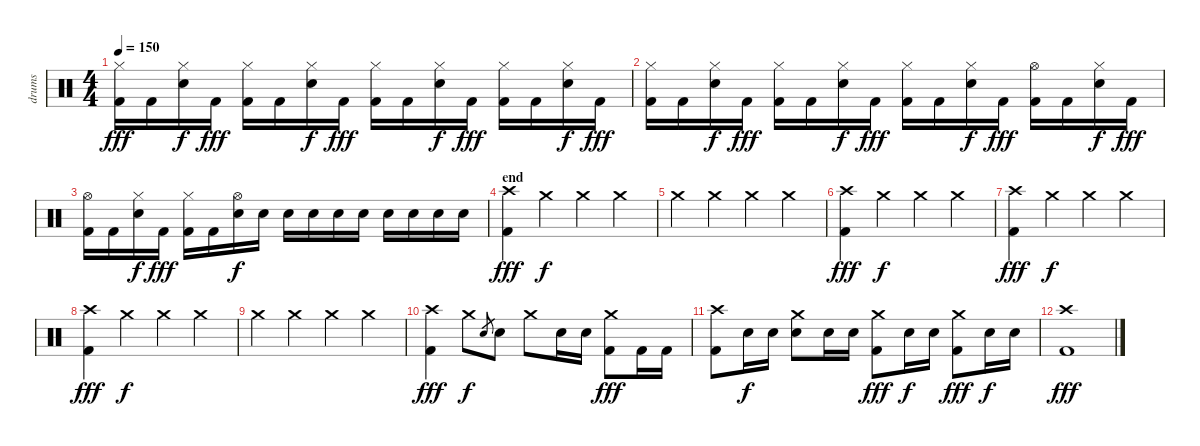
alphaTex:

\track ("drums" "drums") {instrument percussion}
\staff {score}
\articulation defaults
\ts (4 4)
\tempo 150
\clef neutral
\ks c
("Hi-Hat (closed)" "Kick (hit) 2").16{dy fff} "Kick (hit) 2".16 ("Hi-Hat (closed)" "Snare (hit) 2").16{dy f} "Kick (hit) 2".16{dy fff} ("Hi-Hat (closed)" "Kick (hit) 2").16 "Kick (hit) 2".16 ("Hi-Hat (closed)" "Snare (hit) 2").16{dy f} "Kick (hit) 2".16{dy fff} ("Hi-Hat (closed)" "Kick (hit) 2").16 "Kick (hit) 2".16 ("Hi-Hat (closed)" "Snare (hit) 2").16{dy f} "Kick (hit) 2".16{dy fff} ("Hi-Hat (closed)" "Kick (hit) 2").16 "Kick (hit) 2".16 ("Hi-Hat (closed)" "Snare (hit) 2").16{dy f} "Kick (hit) 2".16{dy fff} |
("Hi-Hat (closed)" "Kick (hit) 2").16 "Kick (hit) 2".16 ("Hi-Hat (closed)" "Snare (hit) 2").16{dy f} "Kick (hit) 2".16{dy fff} ("Hi-Hat (closed)" "Kick (hit) 2").16 "Kick (hit) 2".16 ("Hi-Hat (closed)" "Snare (hit) 2").16{dy f} "Kick (hit) 2".16{dy fff} ("Hi-Hat (closed)" "Kick (hit) 2").16 "Kick (hit) 2".16 ("Hi-Hat (closed)" "Snare (hit) 2").16{dy f} "Kick (hit) 2".16{dy fff} ("Hi-Hat (open)" "Kick (hit) 2").16 "Kick (hit) 2".16 ("Hi-Hat (closed)" "Snare (hit) 2").16{dy f} "Kick (hit) 2".16{dy fff} |
("Hi-Hat (open)" "Kick (hit) 2").16 "Kick (hit) 2".16 ("Hi-Hat (closed)" "Snare (hit) 2").16{dy f} "Kick (hit) 2".16{dy fff} ("Hi-Hat (closed)" "Kick (hit) 2").16 "Kick (hit) 2".16 ("Hi-Hat (open)" "Snare (hit) 2").16{dy f} "Snare (hit) 2".16 "Snare (hit) 2".16 "Snare (hit) 2".16 "Snare (hit) 2".16 "Snare (hit) 2".16 "Snare (hit) 2".16 "Snare (hit) 2".16 "Snare (hit) 2".16 "Snare (hit) 2".16 |
\section ("" "end")
("Crash high (hit)" "Kick (hit) 2").4{dy fff} "Crash medium (hit)".4{dy f} "Crash medium (hit)".4 "Crash medium (hit)".4 |
"Crash medium (hit)".4 "Crash medium (hit)".4 "Crash medium (hit)".4 "Crash medium (hit)".4 |
("Crash high (hit)" "Kick (hit) 2").4{dy fff} "Crash medium (hit)".4{dy f} "Crash medium (hit)".4 "Crash medium (hit)".4 |
("Crash high (hit)" "Kick (hit) 2").4{dy fff} "Crash medium (hit)".4{dy f} "Crash medium (hit)".4 "Crash medium (hit)".4 |
("Crash high (hit)" "Kick (hit) 2").4{dy fff} "Crash medium (hit)".4{dy f} "Crash medium (hit)".4 "Crash medium (hit)".4 |
"Crash medium (hit)".4 "Crash medium (hit)".4 "Crash medium (hit)".4 "Crash medium (hit)".4 |
("Crash high (hit)" "Kick (hit) 2").4{dy fff} "Crash medium (hit)".8{dy f} "Snare (hit) 2".8{gr} "Snare (hit) 2".8 "Crash medium (hit)".8 "Snare (hit) 2".16 "Snare (hit) 2".16 ("Crash medium (hit)" "Kick (hit) 2").8{dy fff} "Kick (hit) 2".16 "Kick (hit) 2".16 |
("Crash high (hit)" "Kick (hit) 2").8 "Snare (hit) 2".16{dy f} "Snare (hit) 2".16 ("Crash medium (hit)" "Snare (hit) 2").8 "Snare (hit) 2".16 "Snare (hit) 2".16 ("Crash medium (hit)" "Kick (hit) 2").8{dy fff} "Snare (hit) 2".16{dy f} "Snare (hit) 2".16 ("Crash medium (hit)" "Kick (hit) 2").8{dy fff} "Snare (hit) 2".16{dy f} "Snare (hit) 2".16 |
("Crash high (hit)" "Kick (hit) 2").1{dy fff}
